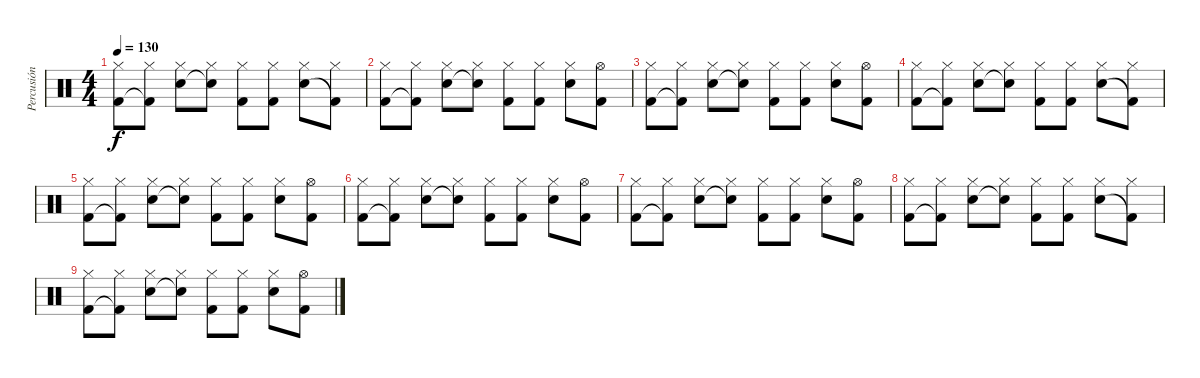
\track ("Percusión" "Percusión") {instrument percussion}
\staff {score}
\articulation defaults
\ts (4 4)
\tempo 130
\clef neutral
\ks c
("Hi-Hat (closed)" "Kick (hit) 2").8{dy f} ("Hi-Hat (closed)" "Kick (hit) 2"{t}).8 ("Hi-Hat (closed)" "Electric Snare (hit)").8 ("Hi-Hat (closed)" "Snare (hit)"{t}).8 ("Hi-Hat (closed)" "Kick (hit) 2").8 ("Hi-Hat (closed)" "Kick (hit) 2").8 ("Hi-Hat (closed)" "Electric Snare (hit)").8 ("Hi-Hat (closed)" "Kick (hit) 2"{t}).8 |
("Hi-Hat (closed)" "Kick (hit) 2").8 ("Hi-Hat (closed)" "Kick (hit) 2"{t}).8 ("Hi-Hat (closed)" "Electric Snare (hit)").8 ("Hi-Hat (closed)" "Snare (hit)"{t}).8 ("Hi-Hat (closed)" "Kick (hit) 2").8 ("Hi-Hat (closed)" "Kick (hit) 2").8 ("Hi-Hat (closed)" "Electric Snare (hit)").8 ("Hi-Hat (open)" "Kick (hit) 2").8 |
("Hi-Hat (closed)" "Kick (hit) 2").8 ("Hi-Hat (closed)" "Kick (hit) 2"{t}).8 ("Hi-Hat (closed)" "Electric Snare (hit)").8 ("Hi-Hat (closed)" "Snare (hit)"{t}).8 ("Hi-Hat (closed)" "Kick (hit) 2").8 ("Hi-Hat (closed)" "Kick (hit) 2").8 ("Hi-Hat (closed)" "Electric Snare (hit)").8 ("Hi-Hat (open)" "Kick (hit) 2").8 |
("Hi-Hat (closed)" "Kick (hit) 2").8 ("Hi-Hat (closed)" "Kick (hit) 2"{t}).8 ("Hi-Hat (closed)" "Electric Snare (hit)").8 ("Hi-Hat (closed)" "Snare (hit)"{t}).8 ("Hi-Hat (closed)" "Kick (hit) 2").8 ("Hi-Hat (closed)" "Kick (hit) 2").8 ("Hi-Hat (closed)" "Electric Snare (hit)").8 ("Hi-Hat (closed)" "Kick (hit) 2"{t}).8 |
("Hi-Hat (closed)" "Kick (hit) 2").8 ("Hi-Hat (closed)" "Kick (hit) 2"{t}).8 ("Hi-Hat (closed)" "Electric Snare (hit)").8 ("Hi-Hat (closed)" "Snare (hit)"{t}).8 ("Hi-Hat (closed)" "Kick (hit) 2").8 ("Hi-Hat (closed)" "Kick (hit) 2").8 ("Hi-Hat (closed)" "Electric Snare (hit)").8 ("Hi-Hat (open)" "Kick (hit) 2").8 |
("Hi-Hat (closed)" "Kick (hit) 2").8 ("Hi-Hat (closed)" "Kick (hit) 2"{t}).8 ("Hi-Hat (closed)" "Electric Snare (hit)").8 ("Hi-Hat (closed)" "Snare (hit)"{t}).8 ("Hi-Hat (closed)" "Kick (hit) 2").8 ("Hi-Hat (closed)" "Kick (hit) 2").8 ("Hi-Hat (closed)" "Electric Snare (hit)").8 ("Hi-Hat (open)" "Kick (hit) 2").8 |
("Hi-Hat (closed)" "Kick (hit) 2").8 ("Hi-Hat (closed)" "Kick (hit) 2"{t}).8 ("Hi-Hat (closed)" "Electric Snare (hit)").8 ("Hi-Hat (closed)" "Snare (hit)"{t}).8 ("Hi-Hat (closed)" "Kick (hit) 2").8 ("Hi-Hat (closed)" "Kick (hit) 2").8 ("Hi-Hat (closed)" "Electric Snare (hit)").8 ("Hi-Hat (open)" "Kick (hit) 2").8 |
("Hi-Hat (closed)" "Kick (hit) 2").8 ("Hi-Hat (closed)" "Kick (hit) 2"{t}).8 ("Hi-Hat (closed)" "Electric Snare (hit)").8 ("Hi-Hat (closed)" "Snare (hit)"{t}).8 ("Hi-Hat (closed)" "Kick (hit) 2").8 ("Hi-Hat (closed)" "Kick (hit) 2").8 ("Hi-Hat (closed)" "Electric Snare (hit)").8 ("Hi-Hat (closed)" "Kick (hit) 2"{t}).8 |
("Hi-Hat (closed)" "Kick (hit) 2").8 ("Hi-Hat (closed)" "Kick (hit) 2"{t}).8 ("Hi-Hat (closed)" "Electric Snare (hit)").8 ("Hi-Hat (closed)" "Snare (hit)"{t}).8 ("Hi-Hat (closed)" "Kick (hit) 2").8 ("Hi-Hat (closed)" "Kick (hit) 2").8 ("Hi-Hat (closed)" "Electric Snare (hit)").8 ("Hi-Hat (open)" "Kick (hit) 2").8
